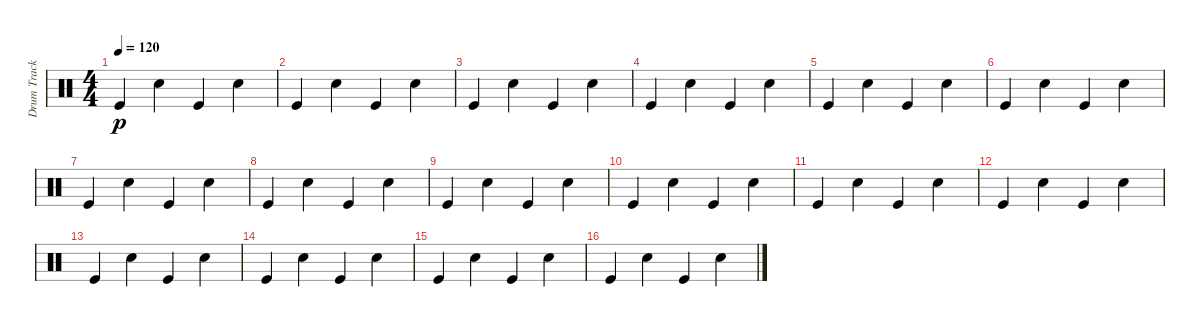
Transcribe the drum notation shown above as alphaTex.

\track ("Drum Track" "Drum Track") {instrument percussion}
\staff {score}
\articulation defaults
\ts (4 4)
\tempo 120
\clef neutral
\ks c "Kick (hit)".4{dy p} "Snare (hit) 2".4 "Kick (hit)".4 "Snare (hit) 2".4
|
"Kick (hit)".4 "Snare (hit) 2".4 "Kick (hit)".4 "Snare (hit) 2".4 |
"Kick (hit)".4 "Snare (hit) 2".4 "Kick (hit)".4 "Snare (hit) 2".4 |
"Kick (hit)".4 "Snare (hit) 2".4 "Kick (hit)".4 "Snare (hit) 2".4 |
"Kick (hit)".4 "Snare (hit) 2".4 "Kick (hit)".4 "Snare (hit) 2".4 |
"Kick (hit)".4 "Snare (hit) 2".4 "Kick (hit)".4 "Snare (hit) 2".4 |
"Kick (hit)".4 "Snare (hit) 2".4 "Kick (hit)".4 "Snare (hit) 2".4 |
"Kick (hit)".4 "Snare (hit) 2".4 "Kick (hit)".4 "Snare (hit) 2".4 |
"Kick (hit)".4 "Snare (hit) 2".4 "Kick (hit)".4 "Snare (hit) 2".4 |
"Kick (hit)".4 "Snare (hit) 2".4 "Kick (hit)".4 "Snare (hit) 2".4 |
"Kick (hit)".4 "Snare (hit) 2".4 "Kick (hit)".4 "Snare (hit) 2".4 |
"Kick (hit)".4 "Snare (hit) 2".4 "Kick (hit)".4 "Snare (hit) 2".4 |
"Kick (hit)".4 "Snare (hit) 2".4 "Kick (hit)".4 "Snare (hit) 2".4 |
"Kick (hit)".4 "Snare (hit) 2".4 "Kick (hit)".4 "Snare (hit) 2".4 |
"Kick (hit)".4 "Snare (hit) 2".4 "Kick (hit)".4 "Snare (hit) 2".4 |
"Kick (hit)".4 "Snare (hit) 2".4 "Kick (hit)".4 "Snare (hit) 2".4
